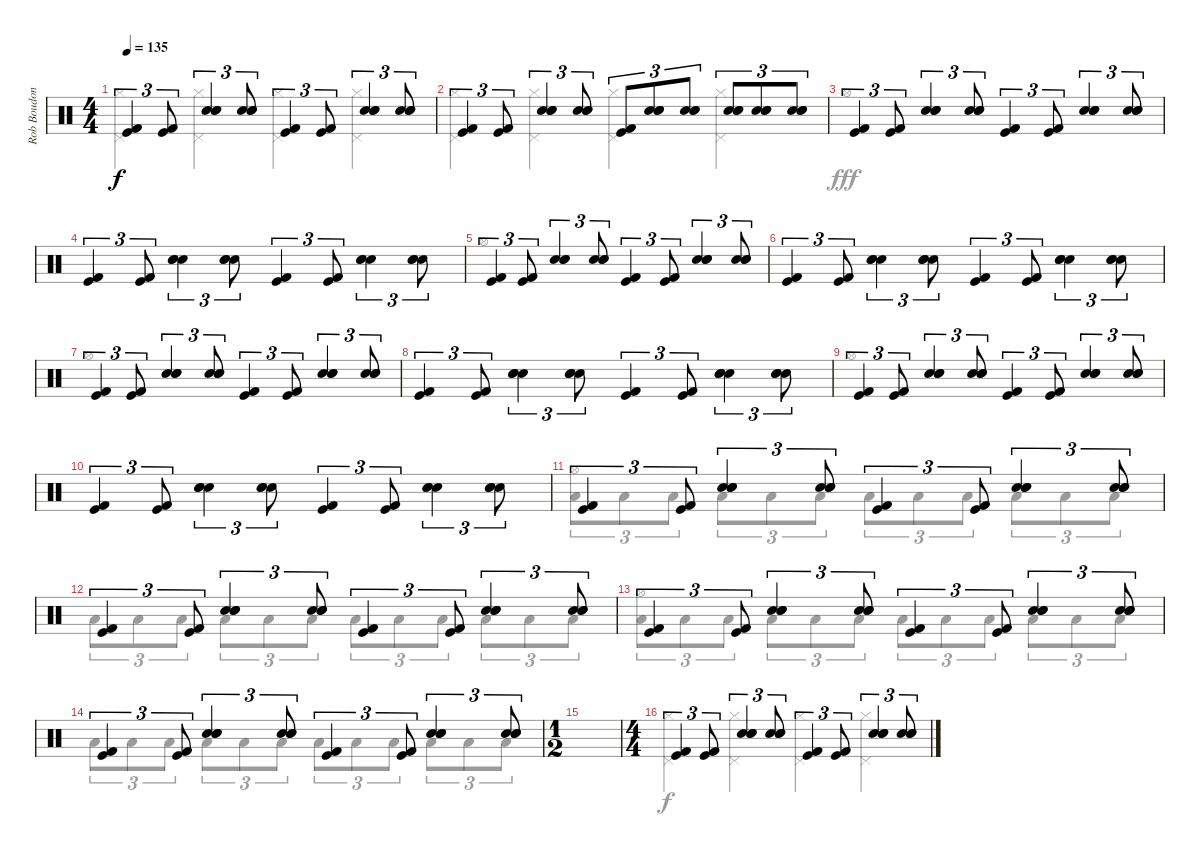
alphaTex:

\track ("Rob Boudon [Drums]" "Rob Boudon") {instrument percussion}
\staff {score}
\articulation defaults
\voice
\ts (4 4)
\tempo 135
\clef neutral
\ks c
("Kick (hit) 2" "Kick (hit)").4{tu (3 2) dy f} ("Kick (hit) 2" "Kick (hit)").8{tu (3 2)} ("Hand Clap (hit)" "Snare (hit) 2" "Electric Snare (hit)").4{tu (3 2)} ("Hand Clap (hit)" "Snare (hit) 2" "Electric Snare (hit)").8{tu (3 2)} ("Kick (hit) 2" "Kick (hit)").4{tu (3 2)} ("Kick (hit) 2" "Kick (hit)").8{tu (3 2)} ("Hand Clap (hit)" "Snare (hit) 2" "Electric Snare (hit)").4{tu (3 2)} ("Hand Clap (hit)" "Snare (hit) 2" "Electric Snare (hit)").8{tu (3 2)} |
("Kick (hit) 2" "Kick (hit)").4{tu (3 2)} ("Kick (hit) 2" "Kick (hit)").8{tu (3 2)} ("Hand Clap (hit)" "Snare (hit) 2" "Electric Snare (hit)").4{tu (3 2)} ("Hand Clap (hit)" "Snare (hit) 2" "Electric Snare (hit)").8{tu (3 2)} ("Kick (hit) 2" "Kick (hit)").8{tu (3 2)} ("Hand Clap (hit)" "Snare (hit) 2" "Electric Snare (hit)").8{tu (3 2)} ("Hand Clap (hit)" "Snare (hit) 2" "Electric Snare (hit)").8{tu (3 2)} ("Hand Clap (hit)" "Snare (hit) 2" "Electric Snare (hit)").8{tu (3 2)} ("Hand Clap (hit)" "Snare (hit) 2" "Electric Snare (hit)").8{tu (3 2)} ("Hand Clap (hit)" "Snare (hit) 2" "Electric Snare (hit)").8{tu (3 2)} |
("Kick (hit) 2" "Kick (hit)").4{tu (3 2)} ("Kick (hit) 2" "Kick (hit)").8{tu (3 2)} ("Hand Clap (hit)" "Snare (hit) 2" "Electric Snare (hit)").4{tu (3 2)} ("Hand Clap (hit)" "Snare (hit) 2" "Electric Snare (hit)").8{tu (3 2)} ("Kick (hit) 2" "Kick (hit)").4{tu (3 2)} ("Kick (hit) 2" "Kick (hit)").8{tu (3 2)} ("Hand Clap (hit)" "Snare (hit) 2" "Electric Snare (hit)").4{tu (3 2)} ("Hand Clap (hit)" "Snare (hit) 2" "Electric Snare (hit)").8{tu (3 2)} |
("Kick (hit) 2" "Kick (hit)").4{tu (3 2)} ("Kick (hit) 2" "Kick (hit)").8{tu (3 2)} ("Hand Clap (hit)" "Snare (hit) 2" "Electric Snare (hit)").4{tu (3 2)} ("Hand Clap (hit)" "Snare (hit) 2" "Electric Snare (hit)").8{tu (3 2)} ("Kick (hit) 2" "Kick (hit)").4{tu (3 2)} ("Kick (hit) 2" "Kick (hit)").8{tu (3 2)} ("Hand Clap (hit)" "Snare (hit) 2" "Electric Snare (hit)").4{tu (3 2)} ("Hand Clap (hit)" "Snare (hit) 2" "Electric Snare (hit)").8{tu (3 2)} |
("Kick (hit) 2" "Kick (hit)").4{tu (3 2)} ("Kick (hit) 2" "Kick (hit)").8{tu (3 2)} ("Hand Clap (hit)" "Snare (hit) 2" "Electric Snare (hit)").4{tu (3 2)} ("Hand Clap (hit)" "Snare (hit) 2" "Electric Snare (hit)").8{tu (3 2)} ("Kick (hit) 2" "Kick (hit)").4{tu (3 2)} ("Kick (hit) 2" "Kick (hit)").8{tu (3 2)} ("Hand Clap (hit)" "Snare (hit) 2" "Electric Snare (hit)").4{tu (3 2)} ("Hand Clap (hit)" "Snare (hit) 2" "Electric Snare (hit)").8{tu (3 2)} |
("Kick (hit) 2" "Kick (hit)").4{tu (3 2)} ("Kick (hit) 2" "Kick (hit)").8{tu (3 2)} ("Hand Clap (hit)" "Snare (hit) 2" "Electric Snare (hit)").4{tu (3 2)} ("Hand Clap (hit)" "Snare (hit) 2" "Electric Snare (hit)").8{tu (3 2)} ("Kick (hit) 2" "Kick (hit)").4{tu (3 2)} ("Kick (hit) 2" "Kick (hit)").8{tu (3 2)} ("Hand Clap (hit)" "Snare (hit) 2" "Electric Snare (hit)").4{tu (3 2)} ("Hand Clap (hit)" "Snare (hit) 2" "Electric Snare (hit)").8{tu (3 2)} |
("Kick (hit) 2" "Kick (hit)").4{tu (3 2)} ("Kick (hit) 2" "Kick (hit)").8{tu (3 2)} ("Hand Clap (hit)" "Snare (hit) 2" "Electric Snare (hit)").4{tu (3 2)} ("Hand Clap (hit)" "Snare (hit) 2" "Electric Snare (hit)").8{tu (3 2)} ("Kick (hit) 2" "Kick (hit)").4{tu (3 2)} ("Kick (hit) 2" "Kick (hit)").8{tu (3 2)} ("Hand Clap (hit)" "Snare (hit) 2" "Electric Snare (hit)").4{tu (3 2)} ("Hand Clap (hit)" "Snare (hit) 2" "Electric Snare (hit)").8{tu (3 2)} |
("Kick (hit) 2" "Kick (hit)").4{tu (3 2)} ("Kick (hit) 2" "Kick (hit)").8{tu (3 2)} ("Hand Clap (hit)" "Snare (hit) 2" "Electric Snare (hit)").4{tu (3 2)} ("Hand Clap (hit)" "Snare (hit) 2" "Electric Snare (hit)").8{tu (3 2)} ("Kick (hit) 2" "Kick (hit)").4{tu (3 2)} ("Kick (hit) 2" "Kick (hit)").8{tu (3 2)} ("Hand Clap (hit)" "Snare (hit) 2" "Electric Snare (hit)").4{tu (3 2)} ("Hand Clap (hit)" "Snare (hit) 2" "Electric Snare (hit)").8{tu (3 2)} |
("Kick (hit) 2" "Kick (hit)").4{tu (3 2)} ("Kick (hit) 2" "Kick (hit)").8{tu (3 2)} ("Hand Clap (hit)" "Snare (hit) 2" "Electric Snare (hit)").4{tu (3 2)} ("Hand Clap (hit)" "Snare (hit) 2" "Electric Snare (hit)").8{tu (3 2)} ("Kick (hit) 2" "Kick (hit)").4{tu (3 2)} ("Kick (hit) 2" "Kick (hit)").8{tu (3 2)} ("Hand Clap (hit)" "Snare (hit) 2" "Electric Snare (hit)").4{tu (3 2)} ("Hand Clap (hit)" "Snare (hit) 2" "Electric Snare (hit)").8{tu (3 2)} |
("Kick (hit) 2" "Kick (hit)").4{tu (3 2)} ("Kick (hit) 2" "Kick (hit)").8{tu (3 2)} ("Hand Clap (hit)" "Snare (hit) 2" "Electric Snare (hit)").4{tu (3 2)} ("Hand Clap (hit)" "Snare (hit) 2" "Electric Snare (hit)").8{tu (3 2)} ("Kick (hit) 2" "Kick (hit)").4{tu (3 2)} ("Kick (hit) 2" "Kick (hit)").8{tu (3 2)} ("Hand Clap (hit)" "Snare (hit) 2" "Electric Snare (hit)").4{tu (3 2)} ("Hand Clap (hit)" "Snare (hit) 2" "Electric Snare (hit)").8{tu (3 2)} |
("Kick (hit) 2" "Kick (hit)").4{tu (3 2)} ("Kick (hit) 2" "Kick (hit)").8{tu (3 2)} ("Hand Clap (hit)" "Snare (hit) 2" "Electric Snare (hit)").4{tu (3 2)} ("Hand Clap (hit)" "Snare (hit) 2" "Electric Snare (hit)").8{tu (3 2)} ("Kick (hit) 2" "Kick (hit)").4{tu (3 2)} ("Kick (hit) 2" "Kick (hit)").8{tu (3 2)} ("Hand Clap (hit)" "Snare (hit) 2" "Electric Snare (hit)").4{tu (3 2)} ("Hand Clap (hit)" "Snare (hit) 2" "Electric Snare (hit)").8{tu (3 2)} |
("Kick (hit) 2" "Kick (hit)").4{tu (3 2)} ("Kick (hit) 2" "Kick (hit)").8{tu (3 2)} ("Hand Clap (hit)" "Snare (hit) 2" "Electric Snare (hit)").4{tu (3 2)} ("Hand Clap (hit)" "Snare (hit) 2" "Electric Snare (hit)").8{tu (3 2)} ("Kick (hit) 2" "Kick (hit)").4{tu (3 2)} ("Kick (hit) 2" "Kick (hit)").8{tu (3 2)} ("Hand Clap (hit)" "Snare (hit) 2" "Electric Snare (hit)").4{tu (3 2)} ("Hand Clap (hit)" "Snare (hit) 2" "Electric Snare (hit)").8{tu (3 2)} |
("Kick (hit) 2" "Kick (hit)").4{tu (3 2)} ("Kick (hit) 2" "Kick (hit)").8{tu (3 2)} ("Hand Clap (hit)" "Snare (hit) 2" "Electric Snare (hit)").4{tu (3 2)} ("Hand Clap (hit)" "Snare (hit) 2" "Electric Snare (hit)").8{tu (3 2)} ("Kick (hit) 2" "Kick (hit)").4{tu (3 2)} ("Kick (hit) 2" "Kick (hit)").8{tu (3 2)} ("Hand Clap (hit)" "Snare (hit) 2" "Electric Snare (hit)").4{tu (3 2)} ("Hand Clap (hit)" "Snare (hit) 2" "Electric Snare (hit)").8{tu (3 2)} |
("Kick (hit) 2" "Kick (hit)").4{tu (3 2)} ("Kick (hit) 2" "Kick (hit)").8{tu (3 2)} ("Hand Clap (hit)" "Snare (hit) 2" "Electric Snare (hit)").4{tu (3 2)} ("Hand Clap (hit)" "Snare (hit) 2" "Electric Snare (hit)").8{tu (3 2)} ("Kick (hit) 2" "Kick (hit)").4{tu (3 2)} ("Kick (hit) 2" "Kick (hit)").8{tu (3 2)} ("Hand Clap (hit)" "Snare (hit) 2" "Electric Snare (hit)").4{tu (3 2)} ("Hand Clap (hit)" "Snare (hit) 2" "Electric Snare (hit)").8{tu (3 2)} |
\ts (1 2)
|
\ts (4 4)
("Kick (hit) 2" "Kick (hit)").4{tu (3 2)} ("Kick (hit) 2" "Kick (hit)").8{tu (3 2)} ("Hand Clap (hit)" "Snare (hit) 2" "Electric Snare (hit)").4{tu (3 2)} ("Hand Clap (hit)" "Snare (hit) 2" "Electric Snare (hit)").8{tu (3 2)} ("Kick (hit) 2" "Kick (hit)").4{tu (3 2)} ("Kick (hit) 2" "Kick (hit)").8{tu (3 2)} ("Hand Clap (hit)" "Snare (hit) 2" "Electric Snare (hit)").4{tu (3 2)} ("Hand Clap (hit)" "Snare (hit) 2" "Electric Snare (hit)").8{tu (3 2)}
\voice
\clef neutral
\ottava regular
\simile none
\ks c
("Hi-Hat (closed)" "Pedal Hi-Hat (hit)").4{dy f} ("Hi-Hat (closed)" "Pedal Hi-Hat (hit)").4 ("Hi-Hat (closed)" "Pedal Hi-Hat (hit)").4 ("Hi-Hat (closed)" "Pedal Hi-Hat (hit)").4 |
("Hi-Hat (closed)" "Pedal Hi-Hat (hit)").4 ("Hi-Hat (closed)" "Pedal Hi-Hat (hit)").4 ("Hi-Hat (closed)" "Pedal Hi-Hat (hit)").4 ("Hi-Hat (closed)" "Pedal Hi-Hat (hit)").4 |
"Hi-Hat (open)".1{dy fff} |
|
"Hi-Hat (open)".1 |
|
"Hi-Hat (open)".1 |
|
"Hi-Hat (open)".1 |
|
("Hi-Hat (open)" "Low Tom (hit)").8{tu (3 2)} "Low Tom (hit)".8{tu (3 2)} "Low Tom (hit)".8{tu (3 2)} "Low Tom (hit)".8{tu (3 2)} "Low Tom (hit)".8{tu (3 2)} "Low Tom (hit)".8{tu (3 2)} "Low Tom (hit)".8{tu (3 2)} "Low Tom (hit)".8{tu (3 2)} "Low Tom (hit)".8{tu (3 2)} "Low Tom (hit)".8{tu (3 2)} "Low Tom (hit)".8{tu (3 2)} "Low Tom (hit)".8{tu (3 2)} |
"Low Tom (hit)".8{tu (3 2)} "Low Tom (hit)".8{tu (3 2)} "Low Tom (hit)".8{tu (3 2)} "Low Tom (hit)".8{tu (3 2)} "Low Tom (hit)".8{tu (3 2)} "Low Tom (hit)".8{tu (3 2)} "Low Tom (hit)".8{tu (3 2)} "Low Tom (hit)".8{tu (3 2)} "Low Tom (hit)".8{tu (3 2)} "Low Tom (hit)".8{tu (3 2)} "Low Tom (hit)".8{tu (3 2)} "Low Tom (hit)".8{tu (3 2)} |
("Hi-Hat (open)" "Low Tom (hit)").8{tu (3 2)} "Low Tom (hit)".8{tu (3 2)} "Low Tom (hit)".8{tu (3 2)} "Low Tom (hit)".8{tu (3 2)} "Low Tom (hit)".8{tu (3 2)} "Low Tom (hit)".8{tu (3 2)} "Low Tom (hit)".8{tu (3 2)} "Low Tom (hit)".8{tu (3 2)} "Low Tom (hit)".8{tu (3 2)} "Low Tom (hit)".8{tu (3 2)} "Low Tom (hit)".8{tu (3 2)} "Low Tom (hit)".8{tu (3 2)} |
"Low Tom (hit)".8{tu (3 2)} "Low Tom (hit)".8{tu (3 2)} "Low Tom (hit)".8{tu (3 2)} "Low Tom (hit)".8{tu (3 2)} "Low Tom (hit)".8{tu (3 2)} "Low Tom (hit)".8{tu (3 2)} "Low Tom (hit)".8{tu (3 2)} "Low Tom (hit)".8{tu (3 2)} "Low Tom (hit)".8{tu (3 2)} "Low Tom (hit)".8{tu (3 2)} "Low Tom (hit)".8{tu (3 2)} "Low Tom (hit)".8{tu (3 2)} |
|
("Hi-Hat (closed)" "Pedal Hi-Hat (hit)").4{dy f} ("Hi-Hat (closed)" "Pedal Hi-Hat (hit)").4 ("Hi-Hat (closed)" "Pedal Hi-Hat (hit)").4 ("Hi-Hat (closed)" "Pedal Hi-Hat (hit)").4
